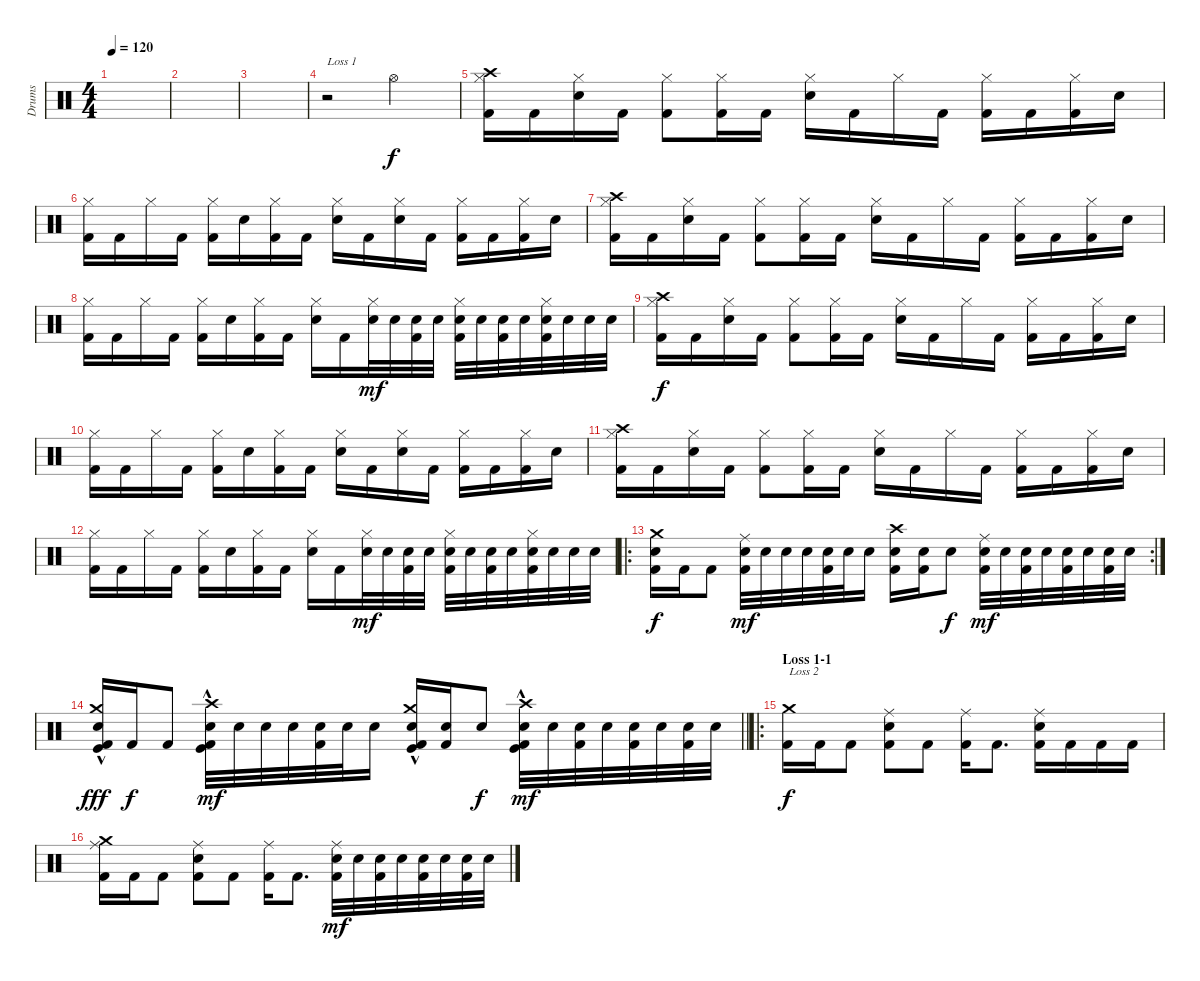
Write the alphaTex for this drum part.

\track ("Drums" "Drums") {instrument percussion}
\staff {score}
\articulation defaults
\ts (4 4)
\tempo 120
\clef neutral
\ks c
|
|
|
r.2{txt "Loss 1"} "Hi-Hat (open)".2 |
("Crash high (hit)" "Hi-Hat (closed)" "Kick (hit) 2").16 "Kick (hit) 2".16 ("Hi-Hat (closed)" "Electric Snare (hit)").16 "Kick (hit) 2".16 ("Hi-Hat (closed)" "Kick (hit) 2").8 ("Hi-Hat (closed)" "Kick (hit) 2").16 "Kick (hit) 2".16 ("Hi-Hat (closed)" "Electric Snare (hit)").16 "Kick (hit) 2".16 "Hi-Hat (closed)".16 "Kick (hit) 2".16 ("Hi-Hat (closed)" "Kick (hit) 2").16 "Kick (hit) 2".16 ("Hi-Hat (closed)" "Kick (hit) 2").16 "Electric Snare (hit)".16 |
("Hi-Hat (closed)" "Kick (hit) 2").16 "Kick (hit) 2".16 "Hi-Hat (closed)".16 "Kick (hit) 2".16 ("Hi-Hat (closed)" "Kick (hit) 2").16 "Electric Snare (hit)".16 ("Hi-Hat (closed)" "Kick (hit) 2").16 "Kick (hit) 2".16 ("Hi-Hat (closed)" "Electric Snare (hit)").16 "Kick (hit) 2".16 ("Hi-Hat (closed)" "Electric Snare (hit)").16 "Kick (hit) 2".16 ("Hi-Hat (closed)" "Kick (hit) 2").16 "Kick (hit) 2".16 ("Hi-Hat (closed)" "Kick (hit) 2").16 "Electric Snare (hit)".16 |
("Crash high (hit)" "Hi-Hat (closed)" "Kick (hit) 2").16 "Kick (hit) 2".16 ("Hi-Hat (closed)" "Electric Snare (hit)").16 "Kick (hit) 2".16 ("Hi-Hat (closed)" "Kick (hit) 2").8 ("Hi-Hat (closed)" "Kick (hit) 2").16 "Kick (hit) 2".16 ("Hi-Hat (closed)" "Electric Snare (hit)").16 "Kick (hit) 2".16 "Hi-Hat (closed)".16 "Kick (hit) 2".16 ("Hi-Hat (closed)" "Kick (hit) 2").16 "Kick (hit) 2".16 ("Hi-Hat (closed)" "Kick (hit) 2").16 "Electric Snare (hit)".16 |
("Hi-Hat (closed)" "Kick (hit) 2").16 "Kick (hit) 2".16 "Hi-Hat (closed)".16 "Kick (hit) 2".16 ("Hi-Hat (closed)" "Kick (hit) 2").16 "Electric Snare (hit)".16 ("Hi-Hat (closed)" "Kick (hit) 2").16 "Kick (hit) 2".16 ("Hi-Hat (closed)" "Electric Snare (hit)").16 "Kick (hit) 2".16 ("Hi-Hat (closed)" "Electric Snare (hit)").32{dy mf} "Electric Snare (hit)".32 ("Electric Snare (hit)" "Kick (hit) 2").32 "Electric Snare (hit)".32 ("Hi-Hat (closed)" "Electric Snare (hit)" "Kick (hit) 2").32 "Electric Snare (hit)".32 ("Electric Snare (hit)" "Kick (hit) 2").32 "Electric Snare (hit)".32 ("Hi-Hat (closed)" "Electric Snare (hit)" "Kick (hit) 2").32 "Electric Snare (hit)".32 "Electric Snare (hit)".32 "Electric Snare (hit)".32 |
("Crash high (hit)" "Hi-Hat (closed)" "Kick (hit) 2").16{dy f} "Kick (hit) 2".16 ("Hi-Hat (closed)" "Electric Snare (hit)").16 "Kick (hit) 2".16 ("Hi-Hat (closed)" "Kick (hit) 2").8 ("Hi-Hat (closed)" "Kick (hit) 2").16 "Kick (hit) 2".16 ("Hi-Hat (closed)" "Electric Snare (hit)").16 "Kick (hit) 2".16 "Hi-Hat (closed)".16 "Kick (hit) 2".16 ("Hi-Hat (closed)" "Kick (hit) 2").16 "Kick (hit) 2".16 ("Hi-Hat (closed)" "Kick (hit) 2").16 "Electric Snare (hit)".16 |
("Hi-Hat (closed)" "Kick (hit) 2").16 "Kick (hit) 2".16 "Hi-Hat (closed)".16 "Kick (hit) 2".16 ("Hi-Hat (closed)" "Kick (hit) 2").16 "Electric Snare (hit)".16 ("Hi-Hat (closed)" "Kick (hit) 2").16 "Kick (hit) 2".16 ("Hi-Hat (closed)" "Electric Snare (hit)").16 "Kick (hit) 2".16 ("Hi-Hat (closed)" "Electric Snare (hit)").16 "Kick (hit) 2".16 ("Hi-Hat (closed)" "Kick (hit) 2").16 "Kick (hit) 2".16 ("Hi-Hat (closed)" "Kick (hit) 2").16 "Electric Snare (hit)".16 |
("Crash high (hit)" "Hi-Hat (closed)" "Kick (hit) 2").16 "Kick (hit) 2".16 ("Hi-Hat (closed)" "Electric Snare (hit)").16 "Kick (hit) 2".16 ("Hi-Hat (closed)" "Kick (hit) 2").8 ("Hi-Hat (closed)" "Kick (hit) 2").16 "Kick (hit) 2".16 ("Hi-Hat (closed)" "Electric Snare (hit)").16 "Kick (hit) 2".16 "Hi-Hat (closed)".16 "Kick (hit) 2".16 ("Hi-Hat (closed)" "Kick (hit) 2").16 "Kick (hit) 2".16 ("Hi-Hat (closed)" "Kick (hit) 2").16 "Electric Snare (hit)".16 |
("Hi-Hat (closed)" "Kick (hit) 2").16 "Kick (hit) 2".16 "Hi-Hat (closed)".16 "Kick (hit) 2".16 ("Hi-Hat (closed)" "Kick (hit) 2").16 "Electric Snare (hit)".16 ("Hi-Hat (closed)" "Kick (hit) 2").16 "Kick (hit) 2".16 ("Hi-Hat (closed)" "Electric Snare (hit)").16 "Kick (hit) 2".16 ("Hi-Hat (closed)" "Electric Snare (hit)").32{dy mf} "Electric Snare (hit)".32 ("Electric Snare (hit)" "Kick (hit) 2").32 "Electric Snare (hit)".32 ("Hi-Hat (closed)" "Electric Snare (hit)" "Kick (hit) 2").32 "Electric Snare (hit)".32 ("Electric Snare (hit)" "Kick (hit) 2").32 "Electric Snare (hit)".32 ("Hi-Hat (closed)" "Electric Snare (hit)" "Kick (hit) 2").32 "Electric Snare (hit)".32 "Electric Snare (hit)".32 "Electric Snare (hit)".32 |
\ro
\rc 2
("Crash medium (hit)" "Electric Snare (hit)" "Kick (hit) 2").16{dy f} "Kick (hit) 2".16 "Kick (hit) 2".8 ("Ride (middle)" "Electric Snare (hit)" "Kick (hit) 2").32{dy mf} "Electric Snare (hit)".32 "Electric Snare (hit)".32 "Electric Snare (hit)".32 ("Electric Snare (hit)" "Kick (hit) 2").32 "Electric Snare (hit)".32 "Electric Snare (hit)".16 ("Crash high (hit)" "Electric Snare (hit)" "Kick (hit) 2").16 ("Electric Snare (hit)" "Kick (hit) 2").16 "Electric Snare (hit)".8{dy f} ("Ride (middle)" "Electric Snare (hit)" "Kick (hit) 2").32{dy mf} "Electric Snare (hit)".32 ("Electric Snare (hit)" "Kick (hit) 2").32 "Electric Snare (hit)".32 ("Electric Snare (hit)" "Kick (hit) 2").32 "Electric Snare (hit)".32 ("Electric Snare (hit)" "Kick (hit) 2").32 "Electric Snare (hit)".32 |
\barLineRight lightlight
("Crash medium (hit)" "Kick (hit)"{hac} "Electric Snare (hit)" "Kick (hit) 2").16{dy fff} "Kick (hit) 2".16{dy f} "Kick (hit) 2".8 ("Crash high (hit)" "Kick (hit)"{hac} "Electric Snare (hit)" "Kick (hit) 2").32{dy mf} "Electric Snare (hit)".32 "Electric Snare (hit)".32 "Electric Snare (hit)".32 ("Electric Snare (hit)" "Kick (hit) 2").32 "Electric Snare (hit)".32 "Electric Snare (hit)".16 ("Crash medium (hit)" "Kick (hit)"{hac} "Electric Snare (hit)" "Kick (hit) 2").16 ("Electric Snare (hit)" "Kick (hit) 2").16 "Electric Snare (hit)".8{dy f} ("Crash high (hit)" "Kick (hit)"{hac} "Electric Snare (hit)" "Kick (hit) 2").32{dy mf} "Electric Snare (hit)".32 ("Electric Snare (hit)" "Kick (hit) 2").32 "Electric Snare (hit)".32 ("Electric Snare (hit)" "Kick (hit) 2").32 "Electric Snare (hit)".32 ("Electric Snare (hit)" "Kick (hit) 2").32 "Electric Snare (hit)".32 |
\ro
\section ("" "Loss 1-1")
("Crash medium (hit)" "Kick (hit) 2").16{txt "Loss 2" dy f} "Kick (hit) 2".16 "Kick (hit) 2".8 ("Ride (middle)" "Electric Snare (hit)" "Kick (hit) 2").8 "Kick (hit) 2".8 ("Ride (middle)" "Kick (hit) 2").16 "Kick (hit) 2".8{d} ("Ride (middle)" "Electric Snare (hit)" "Kick (hit) 2").16 "Kick (hit) 2".16 "Kick (hit) 2".16 "Kick (hit) 2".16 |
("Crash medium (hit)" "Ride (middle)" "Kick (hit) 2").16 "Kick (hit) 2".16 "Kick (hit) 2".8 ("Ride (middle)" "Electric Snare (hit)" "Kick (hit) 2").8 "Kick (hit) 2".8 ("Ride (middle)" "Kick (hit) 2").16 "Kick (hit) 2".8{d} ("Ride (middle)" "Electric Snare (hit)" "Kick (hit) 2").32{dy mf} "Electric Snare (hit)".32 ("Electric Snare (hit)" "Kick (hit) 2").32 "Electric Snare (hit)".32 ("Electric Snare (hit)" "Kick (hit) 2").32 "Electric Snare (hit)".32 ("Electric Snare (hit)" "Kick (hit) 2").32 "Electric Snare (hit)".32
